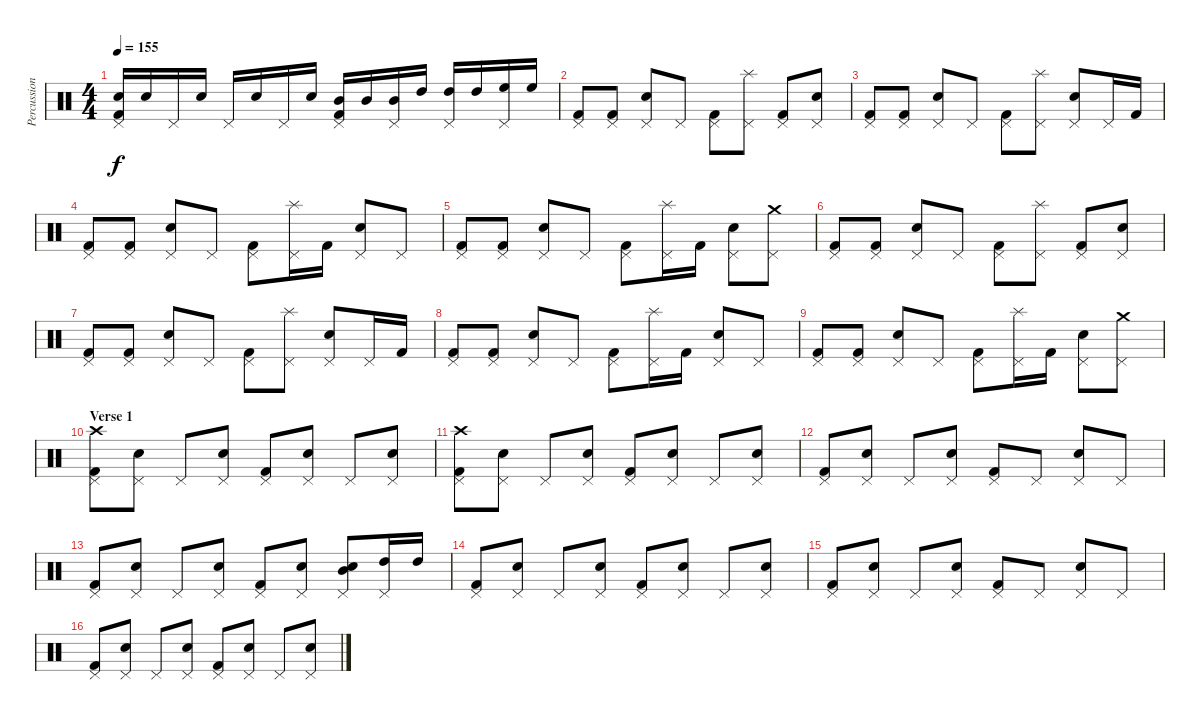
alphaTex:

\track ("Percussion" "Percussion") {instrument percussion}
\staff {score}
\articulation defaults
\ts (4 4)
\tempo 155
\clef neutral
\ks c
("Kick (hit) 2" "Electric Snare (hit)" "Pedal Hi-Hat (hit)").16{dy f} "Electric Snare (hit)".16 "Pedal Hi-Hat (hit)".16 "Electric Snare (hit)".16 "Pedal Hi-Hat (hit)".16 "Electric Snare (hit)".16 "Pedal Hi-Hat (hit)".16 "Electric Snare (hit)".16 ("Kick (hit) 2" "Mid Tom (hit)" "Pedal Hi-Hat (hit)").16 "Mid Tom (hit)".16 ("Mid Tom (hit)" "Pedal Hi-Hat (hit)").16 "High Tom (hit)".16 ("High Tom (hit)" "Pedal Hi-Hat (hit)").16 "High Tom (hit)".16 ("High Floor Tom (hit)" "Pedal Hi-Hat (hit)").16 "High Floor Tom (hit)".16 |
("Pedal Hi-Hat (hit)" "Kick (hit) 2").8 ("Pedal Hi-Hat (hit)" "Kick (hit) 2").8 ("Pedal Hi-Hat (hit)" "Electric Snare (hit)").8 "Pedal Hi-Hat (hit)".8 ("Pedal Hi-Hat (hit)" "Kick (hit) 2").8 ("Pedal Hi-Hat (hit)" "Splash (hit)").8 ("Pedal Hi-Hat (hit)" "Kick (hit) 2").8 ("Pedal Hi-Hat (hit)" "Electric Snare (hit)").8 |
("Pedal Hi-Hat (hit)" "Kick (hit) 2").8 ("Pedal Hi-Hat (hit)" "Kick (hit) 2").8 ("Pedal Hi-Hat (hit)" "Electric Snare (hit)").8 "Pedal Hi-Hat (hit)".8 ("Pedal Hi-Hat (hit)" "Kick (hit) 2").8 ("Pedal Hi-Hat (hit)" "Splash (hit)").8 ("Pedal Hi-Hat (hit)" "Electric Snare (hit)").8 "Pedal Hi-Hat (hit)".16 "Kick (hit) 2".16 |
("Pedal Hi-Hat (hit)" "Kick (hit) 2").8 ("Pedal Hi-Hat (hit)" "Kick (hit) 2").8 ("Pedal Hi-Hat (hit)" "Electric Snare (hit)").8 "Pedal Hi-Hat (hit)".8 ("Pedal Hi-Hat (hit)" "Kick (hit) 2").8 ("Pedal Hi-Hat (hit)" "Splash (hit)").16 "Kick (hit) 2".16 ("Pedal Hi-Hat (hit)" "Electric Snare (hit)").8 "Pedal Hi-Hat (hit)".8 |
("Pedal Hi-Hat (hit)" "Kick (hit) 2").8 ("Pedal Hi-Hat (hit)" "Kick (hit) 2").8 ("Pedal Hi-Hat (hit)" "Electric Snare (hit)").8 "Pedal Hi-Hat (hit)".8 ("Pedal Hi-Hat (hit)" "Kick (hit) 2").8 ("Pedal Hi-Hat (hit)" "Splash (hit)").16 "Kick (hit) 2".16 ("Pedal Hi-Hat (hit)" "Electric Snare (hit)").8 ("Pedal Hi-Hat (hit)" "Crash medium (hit)").8 |
("Pedal Hi-Hat (hit)" "Kick (hit) 2").8 ("Pedal Hi-Hat (hit)" "Kick (hit) 2").8 ("Pedal Hi-Hat (hit)" "Electric Snare (hit)").8 "Pedal Hi-Hat (hit)".8 ("Pedal Hi-Hat (hit)" "Kick (hit) 2").8 ("Pedal Hi-Hat (hit)" "Splash (hit)").8 ("Pedal Hi-Hat (hit)" "Kick (hit) 2").8 ("Pedal Hi-Hat (hit)" "Electric Snare (hit)").8 |
("Pedal Hi-Hat (hit)" "Kick (hit) 2").8 ("Pedal Hi-Hat (hit)" "Kick (hit) 2").8 ("Pedal Hi-Hat (hit)" "Electric Snare (hit)").8 "Pedal Hi-Hat (hit)".8 ("Pedal Hi-Hat (hit)" "Kick (hit) 2").8 ("Pedal Hi-Hat (hit)" "Splash (hit)").8 ("Pedal Hi-Hat (hit)" "Electric Snare (hit)").8 "Pedal Hi-Hat (hit)".16 "Kick (hit) 2".16 |
("Pedal Hi-Hat (hit)" "Kick (hit) 2").8 ("Pedal Hi-Hat (hit)" "Kick (hit) 2").8 ("Pedal Hi-Hat (hit)" "Electric Snare (hit)").8 "Pedal Hi-Hat (hit)".8 ("Pedal Hi-Hat (hit)" "Kick (hit) 2").8 ("Pedal Hi-Hat (hit)" "Splash (hit)").16 "Kick (hit) 2".16 ("Pedal Hi-Hat (hit)" "Electric Snare (hit)").8 "Pedal Hi-Hat (hit)".8 |
("Pedal Hi-Hat (hit)" "Kick (hit) 2").8 ("Pedal Hi-Hat (hit)" "Kick (hit) 2").8 ("Pedal Hi-Hat (hit)" "Electric Snare (hit)").8 "Pedal Hi-Hat (hit)".8 ("Pedal Hi-Hat (hit)" "Kick (hit) 2").8 ("Pedal Hi-Hat (hit)" "Splash (hit)").16 "Kick (hit) 2".16 ("Pedal Hi-Hat (hit)" "Electric Snare (hit)").8 ("Pedal Hi-Hat (hit)" "Crash medium (hit)").8 |
\section ("" "Verse 1")
("Pedal Hi-Hat (hit)" "Kick (hit) 2" "Crash high (hit)").8 ("Pedal Hi-Hat (hit)" "Electric Snare (hit)").8 "Pedal Hi-Hat (hit)".8 ("Pedal Hi-Hat (hit)" "Electric Snare (hit)").8 ("Pedal Hi-Hat (hit)" "Kick (hit) 2").8 ("Pedal Hi-Hat (hit)" "Electric Snare (hit)").8 "Pedal Hi-Hat (hit)".8 ("Pedal Hi-Hat (hit)" "Electric Snare (hit)").8 |
("Pedal Hi-Hat (hit)" "Kick (hit) 2" "Crash high (hit)").8 ("Pedal Hi-Hat (hit)" "Electric Snare (hit)").8 "Pedal Hi-Hat (hit)".8 ("Pedal Hi-Hat (hit)" "Electric Snare (hit)").8 ("Pedal Hi-Hat (hit)" "Kick (hit) 2").8 ("Pedal Hi-Hat (hit)" "Electric Snare (hit)").8 "Pedal Hi-Hat (hit)".8 ("Pedal Hi-Hat (hit)" "Electric Snare (hit)").8 |
("Pedal Hi-Hat (hit)" "Kick (hit) 2").8 ("Pedal Hi-Hat (hit)" "Electric Snare (hit)").8 "Pedal Hi-Hat (hit)".8 ("Pedal Hi-Hat (hit)" "Electric Snare (hit)").8 ("Pedal Hi-Hat (hit)" "Kick (hit) 2").8 "Pedal Hi-Hat (hit)".8 ("Pedal Hi-Hat (hit)" "Electric Snare (hit)").8 "Pedal Hi-Hat (hit)".8 |
("Pedal Hi-Hat (hit)" "Kick (hit) 2").8 ("Pedal Hi-Hat (hit)" "Electric Snare (hit)").8 "Pedal Hi-Hat (hit)".8 ("Pedal Hi-Hat (hit)" "Electric Snare (hit)").8 ("Pedal Hi-Hat (hit)" "Kick (hit) 2").8 ("Pedal Hi-Hat (hit)" "Electric Snare (hit)").8 ("Pedal Hi-Hat (hit)" "Electric Snare (hit)" "Mid Tom (hit)").8 ("Pedal Hi-Hat (hit)" "High Tom (hit)").16 "High Tom (hit)".16 |
("Pedal Hi-Hat (hit)" "Kick (hit) 2").8 ("Pedal Hi-Hat (hit)" "Electric Snare (hit)").8 "Pedal Hi-Hat (hit)".8 ("Pedal Hi-Hat (hit)" "Electric Snare (hit)").8 ("Pedal Hi-Hat (hit)" "Kick (hit) 2").8 ("Pedal Hi-Hat (hit)" "Electric Snare (hit)").8 "Pedal Hi-Hat (hit)".8 ("Pedal Hi-Hat (hit)" "Electric Snare (hit)").8 |
("Pedal Hi-Hat (hit)" "Kick (hit) 2").8 ("Pedal Hi-Hat (hit)" "Electric Snare (hit)").8 "Pedal Hi-Hat (hit)".8 ("Pedal Hi-Hat (hit)" "Electric Snare (hit)").8 ("Pedal Hi-Hat (hit)" "Kick (hit) 2").8 "Pedal Hi-Hat (hit)".8 ("Pedal Hi-Hat (hit)" "Electric Snare (hit)").8 "Pedal Hi-Hat (hit)".8 |
("Pedal Hi-Hat (hit)" "Kick (hit) 2").8 ("Pedal Hi-Hat (hit)" "Electric Snare (hit)").8 "Pedal Hi-Hat (hit)".8 ("Pedal Hi-Hat (hit)" "Electric Snare (hit)").8 ("Pedal Hi-Hat (hit)" "Kick (hit) 2").8 ("Pedal Hi-Hat (hit)" "Electric Snare (hit)").8 "Pedal Hi-Hat (hit)".8 ("Pedal Hi-Hat (hit)" "Electric Snare (hit)").8
